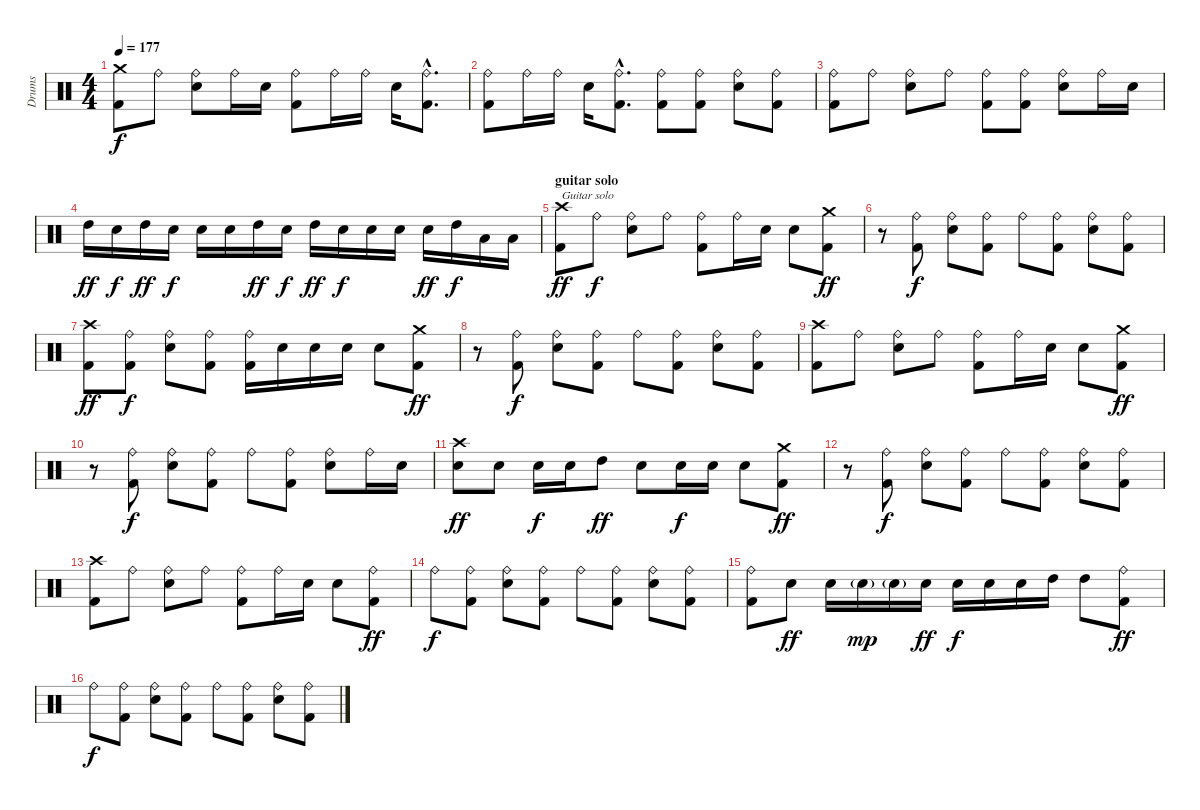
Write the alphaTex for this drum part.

\track ("Drums" "Drums") {instrument percussion}
\staff {score}
\articulation defaults
\ts (4 4)
\tempo 177
\clef neutral
\ks c
("Crash medium (hit)" "Kick (hit) 2").8{dy f} "Ride (bell)".8 ("Ride (bell)" "Electric Snare (hit)").8 "Ride (bell)".16 "Electric Snare (hit)".16 ("Ride (bell)" "Kick (hit) 2").8 "Ride (bell)".16 "Ride (bell)".16 "Electric Snare (hit)".16 ("Ride (bell)"{hac} "Kick (hit) 2"{hac}).8{d} |
("Ride (bell)" "Kick (hit) 2").8 "Ride (bell)".16 "Ride (bell)".16 "Electric Snare (hit)".16 ("Ride (bell)"{hac} "Kick (hit) 2"{hac}).8{d} ("Ride (bell)" "Kick (hit) 2").8 ("Ride (bell)" "Kick (hit) 2").8 ("Ride (bell)" "Electric Snare (hit)").8 ("Ride (bell)" "Kick (hit) 2").8 |
("Ride (bell)" "Kick (hit) 2").8 "Ride (bell)".8 ("Ride (bell)" "Electric Snare (hit)").8 "Ride (bell)".8 ("Ride (bell)" "Kick (hit) 2").8 ("Ride (bell)" "Kick (hit) 2").8 ("Ride (bell)" "Electric Snare (hit)").8 "Ride (bell)".16 "Electric Snare (hit)".16 |
"High Tom (hit)".16{dy ff} "Electric Snare (hit)".16{dy f} "High Tom (hit)".16{dy ff} "Electric Snare (hit)".16{dy f} "Electric Snare (hit)".16 "Electric Snare (hit)".16 "High Tom (hit)".16{dy ff} "Electric Snare (hit)".16{dy f} "High Tom (hit)".16{dy ff} "Electric Snare (hit)".16{dy f} "Electric Snare (hit)".16 "Electric Snare (hit)".16 "Electric Snare (hit)".16{dy ff} "High Tom (hit)".16{dy f} "Low Tom (hit)".16 "Low Tom (hit)".16 |
\section ("" "guitar solo")
("Crash high (hit)" "Kick (hit) 2").8{txt "Guitar solo" dy ff} "Ride (bell)".8{dy f} ("Ride (bell)" "Electric Snare (hit)").8 "Ride (bell)".8 ("Ride (bell)" "Kick (hit) 2").8 "Ride (bell)".16 "Electric Snare (hit)".16 "Electric Snare (hit)".8 ("Crash medium (hit)" "Kick (hit) 2").8{dy ff} |
r.8 ("Ride (bell)" "Kick (hit) 2").8{dy f} ("Ride (bell)" "Electric Snare (hit)").8 ("Ride (bell)" "Kick (hit) 2").8 "Ride (bell)".8 ("Ride (bell)" "Kick (hit) 2").8 ("Ride (bell)" "Electric Snare (hit)").8 ("Ride (bell)" "Kick (hit) 2").8 |
("Crash high (hit)" "Kick (hit) 2").8{dy ff} ("Ride (bell)" "Kick (hit) 2").8{dy f} ("Ride (bell)" "Electric Snare (hit)").8 ("Ride (bell)" "Kick (hit) 2").8 ("Ride (bell)" "Kick (hit) 2").16 "Electric Snare (hit)".16 "Electric Snare (hit)".16 "Electric Snare (hit)".16 "Electric Snare (hit)".8 ("Crash medium (hit)" "Kick (hit) 2").8{dy ff} |
r.8 ("Ride (bell)" "Kick (hit) 2").8{dy f} ("Ride (bell)" "Electric Snare (hit)").8 ("Ride (bell)" "Kick (hit) 2").8 "Ride (bell)".8 ("Ride (bell)" "Kick (hit) 2").8 ("Ride (bell)" "Electric Snare (hit)").8 ("Ride (bell)" "Kick (hit) 2").8 |
("Crash high (hit)" "Kick (hit) 2").8 "Ride (bell)".8 ("Ride (bell)" "Electric Snare (hit)").8 "Ride (bell)".8 ("Ride (bell)" "Kick (hit) 2").8 "Ride (bell)".16 "Electric Snare (hit)".16 "Electric Snare (hit)".8 ("Crash medium (hit)" "Kick (hit) 2").8{dy ff} |
r.8 ("Ride (bell)" "Kick (hit) 2").8{dy f} ("Ride (bell)" "Electric Snare (hit)").8 ("Ride (bell)" "Kick (hit) 2").8 "Ride (bell)".8 ("Ride (bell)" "Kick (hit) 2").8 ("Ride (bell)" "Electric Snare (hit)").8 "Ride (bell)".16 "Electric Snare (hit)".16 |
("Crash high (hit)" "Electric Snare (hit)").8{dy ff} "Electric Snare (hit)".8 "Electric Snare (hit)".16{dy f} "Electric Snare (hit)".16 "High Tom (hit)".8{dy ff} "Electric Snare (hit)".8 "Electric Snare (hit)".16{dy f} "Electric Snare (hit)".16 "Electric Snare (hit)".8 ("Crash medium (hit)" "Kick (hit) 2").8{dy ff} |
r.8 ("Ride (bell)" "Kick (hit) 2").8{dy f} ("Ride (bell)" "Electric Snare (hit)").8 ("Ride (bell)" "Kick (hit) 2").8 "Ride (bell)".8 ("Ride (bell)" "Kick (hit) 2").8 ("Ride (bell)" "Electric Snare (hit)").8 ("Ride (bell)" "Kick (hit) 2").8 |
("Crash high (hit)" "Kick (hit) 2").8 "Ride (bell)".8 ("Ride (bell)" "Electric Snare (hit)").8 "Ride (bell)".8 ("Ride (bell)" "Kick (hit) 2").8 "Ride (bell)".16 "Electric Snare (hit)".16 "Electric Snare (hit)".8 ("Ride (bell)" "Kick (hit) 2").8{dy ff} |
"Ride (bell)".8{dy f} ("Ride (bell)" "Kick (hit) 2").8 ("Ride (bell)" "Electric Snare (hit)").8 ("Ride (bell)" "Kick (hit) 2").8 "Ride (bell)".8 ("Ride (bell)" "Kick (hit) 2").8 ("Ride (bell)" "Electric Snare (hit)").8 ("Ride (bell)" "Kick (hit) 2").8 |
("Ride (bell)" "Kick (hit) 2").8 "Electric Snare (hit)".8{dy ff} "Electric Snare (hit)".16 "Electric Snare (hit)"{g}.16{dy mp} "Electric Snare (hit)"{g}.16 "Electric Snare (hit)".16{dy ff} "Electric Snare (hit)".16{dy f} "Electric Snare (hit)".16 "Electric Snare (hit)".16 "High Tom (hit)".16 "High Tom (hit)".8 ("Ride (bell)" "Kick (hit) 2").8{dy ff} |
"Ride (bell)".8{dy f} ("Ride (bell)" "Kick (hit) 2").8 ("Ride (bell)" "Electric Snare (hit)").8 ("Ride (bell)" "Kick (hit) 2").8 "Ride (bell)".8 ("Ride (bell)" "Kick (hit) 2").8 ("Ride (bell)" "Electric Snare (hit)").8 ("Ride (bell)" "Kick (hit) 2").8
